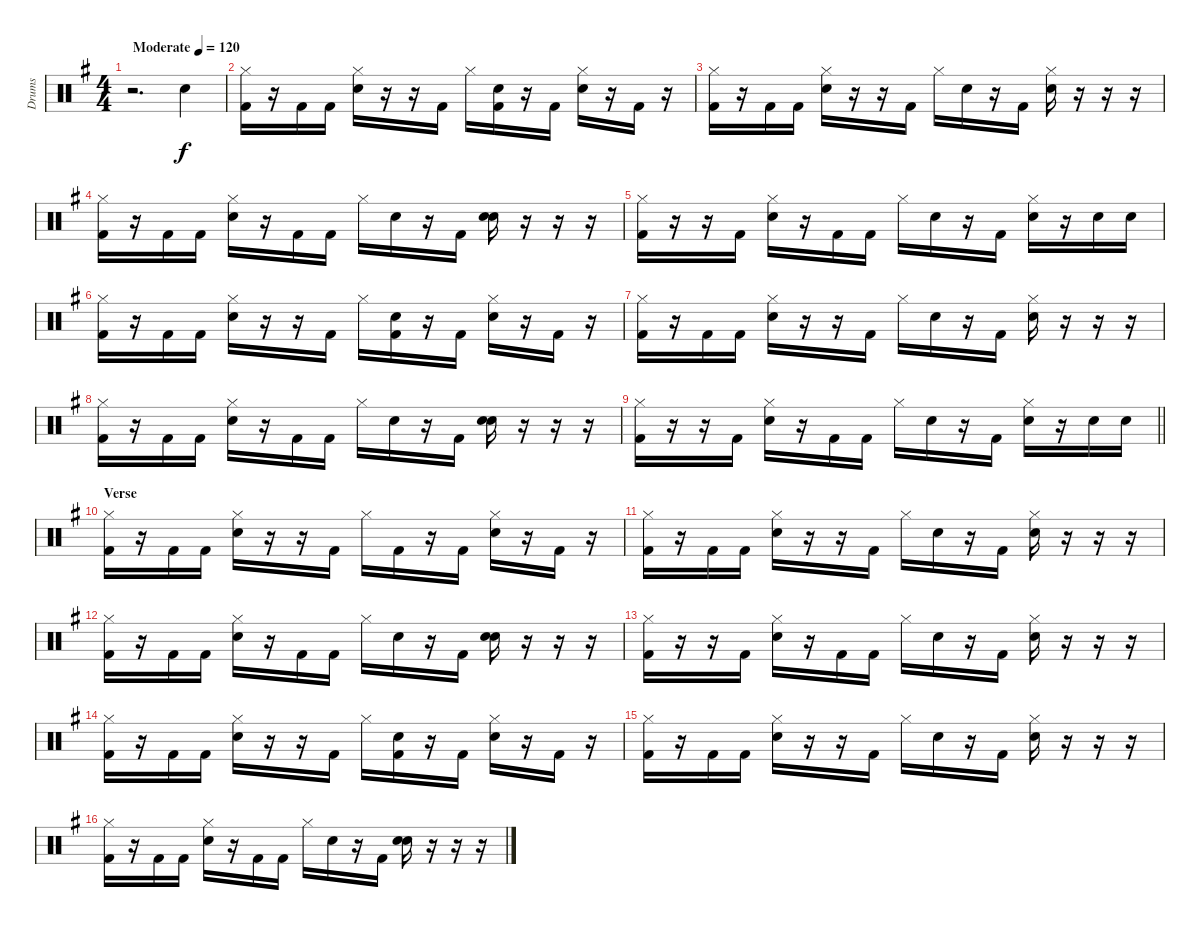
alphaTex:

\track ("Drums" "Drums") {instrument percussion}
\staff {score}
\articulation defaults
\ts (4 4)
\tempo (120 "Moderate")
\clef neutral
\ks g
r.2{d dy f} "Electric Snare (hit)".4 |
("Hi-Hat (closed)" "Kick (hit) 2").16 r.16 "Kick (hit) 2".16 "Kick (hit) 2".16 ("Hi-Hat (closed)" "Electric Snare (hit)").16 r.16 r.16 "Kick (hit) 2".16 "Hi-Hat (closed)".16 ("Electric Snare (hit)" "Kick (hit) 2").16 r.16 "Kick (hit) 2".16 ("Hi-Hat (closed)" "Electric Snare (hit)").16 r.16 "Kick (hit) 2".16 r.16 |
("Hi-Hat (closed)" "Kick (hit) 2").16 r.16 "Kick (hit) 2".16 "Kick (hit) 2".16 ("Hi-Hat (closed)" "Electric Snare (hit)").16 r.16 r.16 "Kick (hit) 2".16 "Hi-Hat (closed)".16 "Electric Snare (hit)".16 r.16 "Kick (hit) 2".16 ("Hi-Hat (closed)" "Electric Snare (hit)").16 r.16 r.16 r.16 |
("Hi-Hat (closed)" "Kick (hit) 2").16 r.16 "Kick (hit) 2".16 "Kick (hit) 2".16 ("Hi-Hat (closed)" "Electric Snare (hit)").16 r.16 "Kick (hit) 2".16 "Kick (hit) 2".16 "Hi-Hat (closed)".16 "Electric Snare (hit)".16 r.16 "Kick (hit) 2".16 ("Electric Snare (hit)" "Electric Snare (hit)").16 r.16 r.16 r.16 |
("Hi-Hat (closed)" "Kick (hit) 2").16 r.16 r.16 "Kick (hit) 2".16 ("Hi-Hat (closed)" "Electric Snare (hit)").16 r.16 "Kick (hit) 2".16 "Kick (hit) 2".16 "Hi-Hat (closed)".16 "Electric Snare (hit)".16 r.16 "Kick (hit) 2".16 ("Hi-Hat (closed)" "Electric Snare (hit)").16 r.16 "Electric Snare (hit)".16 "Electric Snare (hit)".16 |
("Hi-Hat (closed)" "Kick (hit) 2").16 r.16 "Kick (hit) 2".16 "Kick (hit) 2".16 ("Hi-Hat (closed)" "Electric Snare (hit)").16 r.16 r.16 "Kick (hit) 2".16 "Hi-Hat (closed)".16 ("Electric Snare (hit)" "Kick (hit) 2").16 r.16 "Kick (hit) 2".16 ("Hi-Hat (closed)" "Electric Snare (hit)").16 r.16 "Kick (hit) 2".16 r.16 |
("Hi-Hat (closed)" "Kick (hit) 2").16 r.16 "Kick (hit) 2".16 "Kick (hit) 2".16 ("Hi-Hat (closed)" "Electric Snare (hit)").16 r.16 r.16 "Kick (hit) 2".16 "Hi-Hat (closed)".16 "Electric Snare (hit)".16 r.16 "Kick (hit) 2".16 ("Hi-Hat (closed)" "Electric Snare (hit)").16 r.16 r.16 r.16 |
("Hi-Hat (closed)" "Kick (hit) 2").16 r.16 "Kick (hit) 2".16 "Kick (hit) 2".16 ("Hi-Hat (closed)" "Electric Snare (hit)").16 r.16 "Kick (hit) 2".16 "Kick (hit) 2".16 "Hi-Hat (closed)".16 "Electric Snare (hit)".16 r.16 "Kick (hit) 2".16 ("Electric Snare (hit)" "Electric Snare (hit)").16 r.16 r.16 r.16 |
\barLineRight lightlight
("Hi-Hat (closed)" "Kick (hit) 2").16 r.16 r.16 "Kick (hit) 2".16 ("Hi-Hat (closed)" "Electric Snare (hit)").16 r.16 "Kick (hit) 2".16 "Kick (hit) 2".16 "Hi-Hat (closed)".16 "Electric Snare (hit)".16 r.16 "Kick (hit) 2".16 ("Hi-Hat (closed)" "Electric Snare (hit)").16 r.16 "Electric Snare (hit)".16 "Electric Snare (hit)".16 |
\section ("" "Verse")
("Hi-Hat (closed)" "Kick (hit) 2").16 r.16 "Kick (hit) 2".16 "Kick (hit) 2".16 ("Hi-Hat (closed)" "Electric Snare (hit)").16 r.16 r.16 "Kick (hit) 2".16 "Hi-Hat (closed)".16 "Kick (hit) 2".16 r.16 "Kick (hit) 2".16 ("Hi-Hat (closed)" "Electric Snare (hit)").16 r.16 "Kick (hit) 2".16 r.16 |
("Hi-Hat (closed)" "Kick (hit) 2").16 r.16 "Kick (hit) 2".16 "Kick (hit) 2".16 ("Hi-Hat (closed)" "Electric Snare (hit)").16 r.16 r.16 "Kick (hit) 2".16 "Hi-Hat (closed)".16 "Electric Snare (hit)".16 r.16 "Kick (hit) 2".16 ("Hi-Hat (closed)" "Electric Snare (hit)").16 r.16 r.16 r.16 |
("Hi-Hat (closed)" "Kick (hit) 2").16 r.16 "Kick (hit) 2".16 "Kick (hit) 2".16 ("Hi-Hat (closed)" "Electric Snare (hit)").16 r.16 "Kick (hit) 2".16 "Kick (hit) 2".16 "Hi-Hat (closed)".16 "Electric Snare (hit)".16 r.16 "Kick (hit) 2".16 ("Electric Snare (hit)" "Electric Snare (hit)").16 r.16 r.16 r.16 |
("Hi-Hat (closed)" "Kick (hit) 2").16 r.16 r.16 "Kick (hit) 2".16 ("Hi-Hat (closed)" "Electric Snare (hit)").16 r.16 "Kick (hit) 2".16 "Kick (hit) 2".16 "Hi-Hat (closed)".16 "Electric Snare (hit)".16 r.16 "Kick (hit) 2".16 ("Hi-Hat (closed)" "Electric Snare (hit)").16 r.16 r.16 r.16 |
("Hi-Hat (closed)" "Kick (hit) 2").16 r.16 "Kick (hit) 2".16 "Kick (hit) 2".16 ("Hi-Hat (closed)" "Electric Snare (hit)").16 r.16 r.16 "Kick (hit) 2".16 "Hi-Hat (closed)".16 ("Electric Snare (hit)" "Kick (hit) 2").16 r.16 "Kick (hit) 2".16 ("Hi-Hat (closed)" "Electric Snare (hit)").16 r.16 "Kick (hit) 2".16 r.16 |
("Hi-Hat (closed)" "Kick (hit) 2").16 r.16 "Kick (hit) 2".16 "Kick (hit) 2".16 ("Hi-Hat (closed)" "Electric Snare (hit)").16 r.16 r.16 "Kick (hit) 2".16 "Hi-Hat (closed)".16 "Electric Snare (hit)".16 r.16 "Kick (hit) 2".16 ("Hi-Hat (closed)" "Electric Snare (hit)").16 r.16 r.16 r.16 |
("Hi-Hat (closed)" "Kick (hit) 2").16 r.16 "Kick (hit) 2".16 "Kick (hit) 2".16 ("Hi-Hat (closed)" "Electric Snare (hit)").16 r.16 "Kick (hit) 2".16 "Kick (hit) 2".16 "Hi-Hat (closed)".16 "Electric Snare (hit)".16 r.16 "Kick (hit) 2".16 ("Electric Snare (hit)" "Electric Snare (hit)").16 r.16 r.16 r.16
